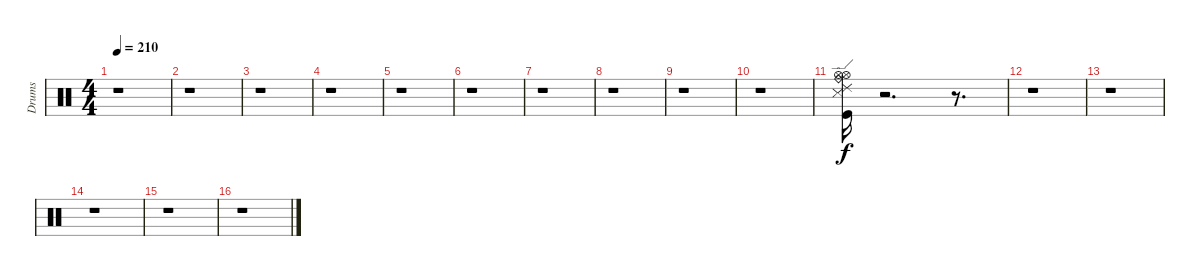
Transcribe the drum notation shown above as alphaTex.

\track ("Drums" "Drums") {instrument percussion}
\staff {score}
\articulation defaults
\ts (4 4)
\tempo 210
\clef neutral
\ks c
r.1{dy mf} |
r.1 |
r.1 |
r.1 |
r.1 |
r.1 |
r.1 |
r.1 |
r.1 |
r.1 |
("Ride (bell)" "Hi-Hat (open)" "Kick (hit)" "Snare (side stick) 3" "Hi-Hat (open)" "Ride (edge) 2").16{dy f} r.2{d} r.8{d} |
r.1 |
r.1 |
r.1 |
r.1 |
r.1
